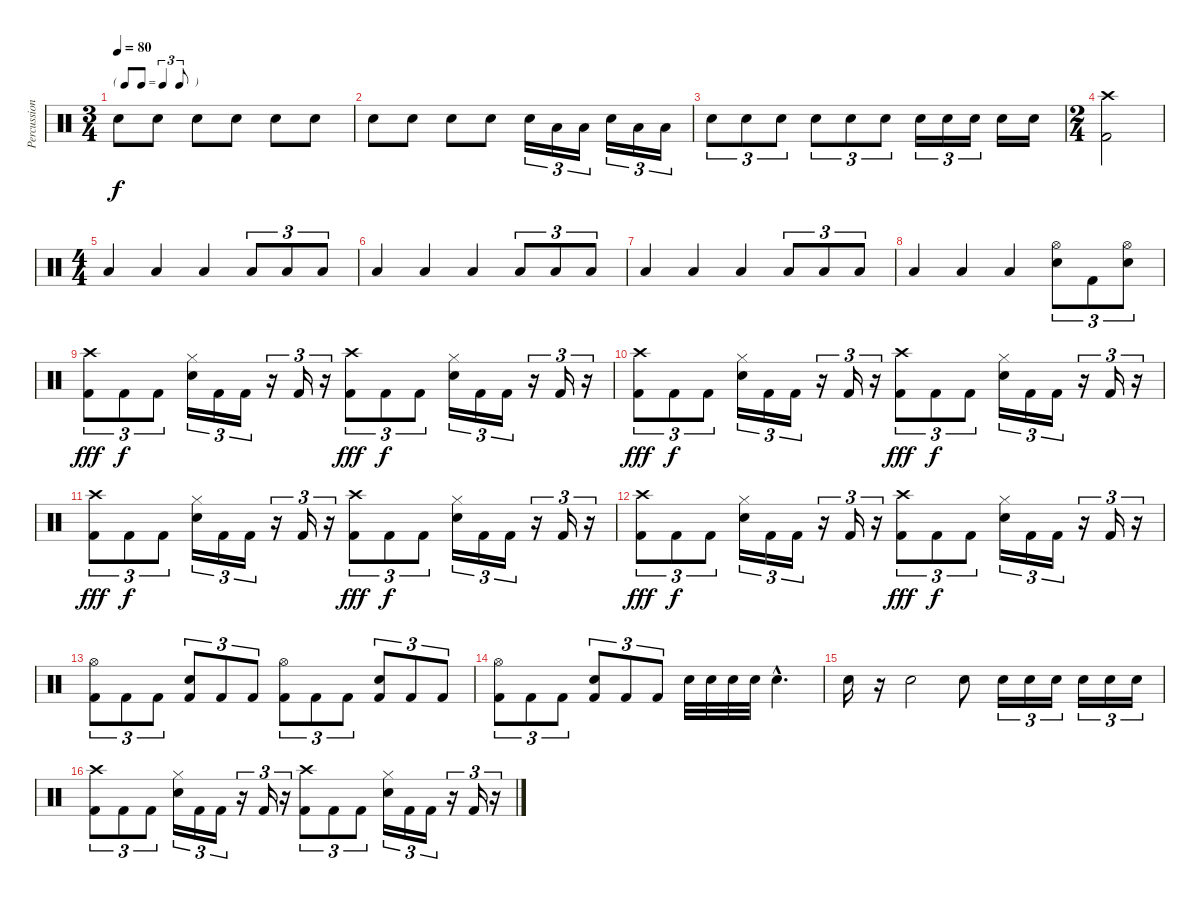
\track ("Percussion" "Percussion") {instrument percussion}
\staff {score}
\articulation defaults
\ts (3 4)
\tf triplet8th
\tempo 80
\clef neutral
\ks c "Electric Snare (hit)".8{dy f} "Electric Snare (hit)".8 "Electric Snare (hit)".8 "Electric Snare (hit)".8 "Electric Snare (hit)".8 "Electric Snare (hit)".8
|
"Electric Snare (hit)".8 "Electric Snare (hit)".8 "Electric Snare (hit)".8 "Electric Snare (hit)".8 "Electric Snare (hit)".16{tu (3 2)} "Low Floor Tom (hit)".16{tu (3 2)} "Low Floor Tom (hit)".16{tu (3 2)} "Electric Snare (hit)".16{tu (3 2)} "Low Floor Tom (hit)".16{tu (3 2)} "Low Floor Tom (hit)".16{tu (3 2)} |
"Electric Snare (hit)".8{tu (3 2)} "Electric Snare (hit)".8{tu (3 2)} "Electric Snare (hit)".8{tu (3 2)} "Electric Snare (hit)".8{tu (3 2)} "Electric Snare (hit)".8{tu (3 2)} "Electric Snare (hit)".8{tu (3 2)} "Electric Snare (hit)".16{tu (3 2)} "Electric Snare (hit)".16{tu (3 2)} "Electric Snare (hit)".16{tu (3 2)} "Electric Snare (hit)".16 "Electric Snare (hit)".16 |
\ts (2 4)
("Crash high (hit)" "Kick (hit) 2").2 |
\ts (4 4)
"Low Floor Tom (hit)".4 "Low Floor Tom (hit)".4 "Low Floor Tom (hit)".4 "Low Floor Tom (hit)".8{tu (3 2)} "Low Floor Tom (hit)".8{tu (3 2)} "Low Floor Tom (hit)".8{tu (3 2)} |
"Low Floor Tom (hit)".4 "Low Floor Tom (hit)".4 "Low Floor Tom (hit)".4 "Low Floor Tom (hit)".8{tu (3 2)} "Low Floor Tom (hit)".8{tu (3 2)} "Low Floor Tom (hit)".8{tu (3 2)} |
"Low Floor Tom (hit)".4 "Low Floor Tom (hit)".4 "Low Floor Tom (hit)".4 "Low Floor Tom (hit)".8{tu (3 2)} "Low Floor Tom (hit)".8{tu (3 2)} "Low Floor Tom (hit)".8{tu (3 2)} |
"Low Floor Tom (hit)".4 "Low Floor Tom (hit)".4 "Low Floor Tom (hit)".4 ("Hi-Hat (open)" "Snare (hit) 2").8{tu (3 2)} "Kick (hit) 2".8{tu (3 2)} ("Hi-Hat (open)" "Snare (hit) 2").8{tu (3 2)} |
("Crash high (hit)" "Kick (hit) 2").8{tu (3 2) dy fff} "Kick (hit) 2".8{tu (3 2) dy f} "Kick (hit) 2".8{tu (3 2)} ("Hi-Hat (closed)" "Snare (hit) 2").16{tu (3 2)} "Kick (hit) 2".16{tu (3 2)} "Kick (hit) 2".16{tu (3 2)} r.16{tu (3 2)} "Kick (hit) 2".16{tu (3 2)} r.16{tu (3 2)} ("Crash high (hit)" "Kick (hit) 2").8{tu (3 2) dy fff} "Kick (hit) 2".8{tu (3 2) dy f} "Kick (hit) 2".8{tu (3 2)} ("Hi-Hat (closed)" "Snare (hit) 2").16{tu (3 2)} "Kick (hit) 2".16{tu (3 2)} "Kick (hit) 2".16{tu (3 2)} r.16{tu (3 2)} "Kick (hit) 2".16{tu (3 2)} r.16{tu (3 2)} |
("Crash high (hit)" "Kick (hit) 2").8{tu (3 2) dy fff} "Kick (hit) 2".8{tu (3 2) dy f} "Kick (hit) 2".8{tu (3 2)} ("Hi-Hat (closed)" "Snare (hit) 2").16{tu (3 2)} "Kick (hit) 2".16{tu (3 2)} "Kick (hit) 2".16{tu (3 2)} r.16{tu (3 2)} "Kick (hit) 2".16{tu (3 2)} r.16{tu (3 2)} ("Crash high (hit)" "Kick (hit) 2").8{tu (3 2) dy fff} "Kick (hit) 2".8{tu (3 2) dy f} "Kick (hit) 2".8{tu (3 2)} ("Hi-Hat (closed)" "Snare (hit) 2").16{tu (3 2)} "Kick (hit) 2".16{tu (3 2)} "Kick (hit) 2".16{tu (3 2)} r.16{tu (3 2)} "Kick (hit) 2".16{tu (3 2)} r.16{tu (3 2)} |
("Crash high (hit)" "Kick (hit) 2").8{tu (3 2) dy fff} "Kick (hit) 2".8{tu (3 2) dy f} "Kick (hit) 2".8{tu (3 2)} ("Hi-Hat (closed)" "Snare (hit) 2").16{tu (3 2)} "Kick (hit) 2".16{tu (3 2)} "Kick (hit) 2".16{tu (3 2)} r.16{tu (3 2)} "Kick (hit) 2".16{tu (3 2)} r.16{tu (3 2)} ("Crash high (hit)" "Kick (hit) 2").8{tu (3 2) dy fff} "Kick (hit) 2".8{tu (3 2) dy f} "Kick (hit) 2".8{tu (3 2)} ("Hi-Hat (closed)" "Snare (hit) 2").16{tu (3 2)} "Kick (hit) 2".16{tu (3 2)} "Kick (hit) 2".16{tu (3 2)} r.16{tu (3 2)} "Kick (hit) 2".16{tu (3 2)} r.16{tu (3 2)} |
("Crash high (hit)" "Kick (hit) 2").8{tu (3 2) dy fff} "Kick (hit) 2".8{tu (3 2) dy f} "Kick (hit) 2".8{tu (3 2)} ("Hi-Hat (closed)" "Snare (hit) 2").16{tu (3 2)} "Kick (hit) 2".16{tu (3 2)} "Kick (hit) 2".16{tu (3 2)} r.16{tu (3 2)} "Kick (hit) 2".16{tu (3 2)} r.16{tu (3 2)} ("Crash high (hit)" "Kick (hit) 2").8{tu (3 2) dy fff} "Kick (hit) 2".8{tu (3 2) dy f} "Kick (hit) 2".8{tu (3 2)} ("Hi-Hat (closed)" "Snare (hit) 2").16{tu (3 2)} "Kick (hit) 2".16{tu (3 2)} "Kick (hit) 2".16{tu (3 2)} r.16{tu (3 2)} "Kick (hit) 2".16{tu (3 2)} r.16{tu (3 2)} |
("Hi-Hat (open)" "Kick (hit) 2").8{tu (3 2)} "Kick (hit) 2".8{tu (3 2)} "Kick (hit) 2".8{tu (3 2)} ("Electric Snare (hit)" "Kick (hit) 2").8{tu (3 2)} "Kick (hit) 2".8{tu (3 2)} "Kick (hit) 2".8{tu (3 2)} ("Hi-Hat (open)" "Kick (hit) 2").8{tu (3 2)} "Kick (hit) 2".8{tu (3 2)} "Kick (hit) 2".8{tu (3 2)} ("Electric Snare (hit)" "Kick (hit) 2").8{tu (3 2)} "Kick (hit) 2".8{tu (3 2)} "Kick (hit) 2".8{tu (3 2)} |
("Hi-Hat (open)" "Kick (hit) 2").8{tu (3 2)} "Kick (hit) 2".8{tu (3 2)} "Kick (hit) 2".8{tu (3 2)} ("Electric Snare (hit)" "Kick (hit) 2").8{tu (3 2)} "Kick (hit) 2".8{tu (3 2)} "Kick (hit) 2".8{tu (3 2)} "Electric Snare (hit)".32 "Electric Snare (hit)".32 "Electric Snare (hit)".32 "Electric Snare (hit)".32 "Electric Snare (hit)"{hac}.4{d} |
"Electric Snare (hit)".16 r.16 "Electric Snare (hit)".2 "Electric Snare (hit)".8 "Electric Snare (hit)".16{tu (3 2)} "Electric Snare (hit)".16{tu (3 2)} "Electric Snare (hit)".16{tu (3 2)} "Electric Snare (hit)".16{tu (3 2)} "Electric Snare (hit)".16{tu (3 2)} "Electric Snare (hit)".16{tu (3 2)} |
("Crash high (hit)" "Kick (hit) 2").8{tu (3 2)} "Kick (hit) 2".8{tu (3 2)} "Kick (hit) 2".8{tu (3 2)} ("Hi-Hat (closed)" "Snare (hit) 2").16{tu (3 2)} "Kick (hit) 2".16{tu (3 2)} "Kick (hit) 2".16{tu (3 2)} r.16{tu (3 2)} "Kick (hit) 2".16{tu (3 2)} r.16{tu (3 2)} ("Crash high (hit)" "Kick (hit) 2").8{tu (3 2)} "Kick (hit) 2".8{tu (3 2)} "Kick (hit) 2".8{tu (3 2)} ("Hi-Hat (closed)" "Snare (hit) 2").16{tu (3 2)} "Kick (hit) 2".16{tu (3 2)} "Kick (hit) 2".16{tu (3 2)} r.16{tu (3 2)} "Kick (hit) 2".16{tu (3 2)} r.16{tu (3 2)}
